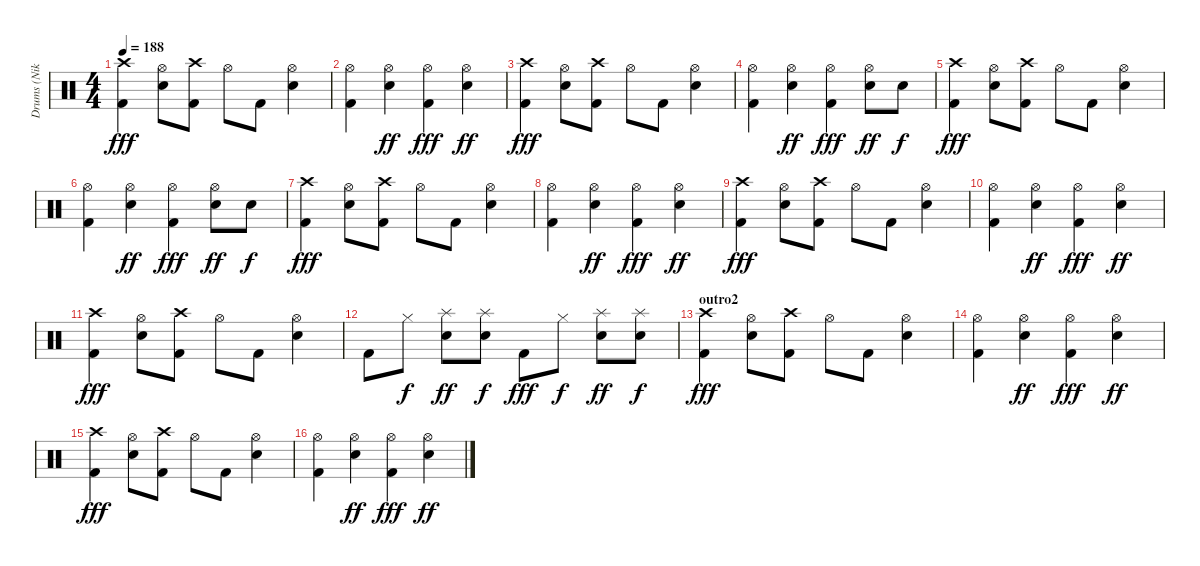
\track ("Drums (Niko)" "Drums (Nik") {instrument percussion}
\staff {score}
\articulation defaults
\ts (4 4)
\tempo 188
\clef neutral
\ks c
("Crash high (hit)" "Kick (hit) 2").4{dy fff} ("Hi-Hat (open)" "Electric Snare (hit)").8 ("Crash high (hit)" "Kick (hit) 2").8 "Hi-Hat (open)".8 "Kick (hit) 2".8 ("Hi-Hat (open)" "Electric Snare (hit)").4 |
("Hi-Hat (open)" "Kick (hit) 2").4 ("Hi-Hat (open)" "Electric Snare (hit)").4{dy ff} ("Hi-Hat (open)" "Kick (hit) 2").4{dy fff} ("Hi-Hat (open)" "Electric Snare (hit)").4{dy ff} |
("Crash high (hit)" "Kick (hit) 2").4{dy fff} ("Hi-Hat (open)" "Electric Snare (hit)").8 ("Crash high (hit)" "Kick (hit) 2").8 "Hi-Hat (open)".8 "Kick (hit) 2".8 ("Hi-Hat (open)" "Electric Snare (hit)").4 |
("Hi-Hat (open)" "Kick (hit) 2").4 ("Hi-Hat (open)" "Electric Snare (hit)").4{dy ff} ("Hi-Hat (open)" "Kick (hit) 2").4{dy fff} ("Hi-Hat (open)" "Electric Snare (hit)").8{dy ff} "Electric Snare (hit)".8{dy f} |
("Crash high (hit)" "Kick (hit) 2").4{dy fff} ("Hi-Hat (open)" "Electric Snare (hit)").8 ("Crash high (hit)" "Kick (hit) 2").8 "Hi-Hat (open)".8 "Kick (hit) 2".8 ("Hi-Hat (open)" "Electric Snare (hit)").4 |
("Hi-Hat (open)" "Kick (hit) 2").4 ("Hi-Hat (open)" "Electric Snare (hit)").4{dy ff} ("Hi-Hat (open)" "Kick (hit) 2").4{dy fff} ("Hi-Hat (open)" "Electric Snare (hit)").8{dy ff} "Electric Snare (hit)".8{dy f} |
("Crash high (hit)" "Kick (hit) 2").4{dy fff} ("Hi-Hat (open)" "Electric Snare (hit)").8 ("Crash high (hit)" "Kick (hit) 2").8 "Hi-Hat (open)".8 "Kick (hit) 2".8 ("Hi-Hat (open)" "Electric Snare (hit)").4 |
("Hi-Hat (open)" "Kick (hit) 2").4 ("Hi-Hat (open)" "Electric Snare (hit)").4{dy ff} ("Hi-Hat (open)" "Kick (hit) 2").4{dy fff} ("Hi-Hat (open)" "Electric Snare (hit)").4{dy ff} |
("Crash high (hit)" "Kick (hit) 2").4{dy fff} ("Hi-Hat (open)" "Electric Snare (hit)").8 ("Crash high (hit)" "Kick (hit) 2").8 "Hi-Hat (open)".8 "Kick (hit) 2".8 ("Hi-Hat (open)" "Electric Snare (hit)").4 |
("Hi-Hat (open)" "Kick (hit) 2").4 ("Hi-Hat (open)" "Electric Snare (hit)").4{dy ff} ("Hi-Hat (open)" "Kick (hit) 2").4{dy fff} ("Hi-Hat (open)" "Electric Snare (hit)").4{dy ff} |
("Crash high (hit)" "Kick (hit) 2").4{dy fff} ("Hi-Hat (open)" "Electric Snare (hit)").8 ("Crash high (hit)" "Kick (hit) 2").8 "Hi-Hat (open)".8 "Kick (hit) 2".8 ("Hi-Hat (open)" "Electric Snare (hit)").4 |
"Kick (hit) 2".8 "Hi-Hat (closed)".8{dy f} ("Splash (hit)" "Electric Snare (hit)").8{dy ff} ("Splash (hit)" "Electric Snare (hit)").8{dy f} "Kick (hit) 2".8{dy fff} "Hi-Hat (closed)".8{dy f} ("Splash (hit)" "Electric Snare (hit)").8{dy ff} ("Splash (hit)" "Electric Snare (hit)").8{dy f} |
\section ("" "outro2")
("Crash high (hit)" "Kick (hit) 2").4{dy fff} ("Hi-Hat (open)" "Electric Snare (hit)").8 ("Crash high (hit)" "Kick (hit) 2").8 "Hi-Hat (open)".8 "Kick (hit) 2".8 ("Hi-Hat (open)" "Electric Snare (hit)").4 |
("Hi-Hat (open)" "Kick (hit) 2").4 ("Hi-Hat (open)" "Electric Snare (hit)").4{dy ff} ("Hi-Hat (open)" "Kick (hit) 2").4{dy fff} ("Hi-Hat (open)" "Electric Snare (hit)").4{dy ff} |
("Crash high (hit)" "Kick (hit) 2").4{dy fff} ("Hi-Hat (open)" "Electric Snare (hit)").8 ("Crash high (hit)" "Kick (hit) 2").8 "Hi-Hat (open)".8 "Kick (hit) 2".8 ("Hi-Hat (open)" "Electric Snare (hit)").4 |
("Hi-Hat (open)" "Kick (hit) 2").4 ("Hi-Hat (open)" "Electric Snare (hit)").4{dy ff} ("Hi-Hat (open)" "Kick (hit) 2").4{dy fff} ("Hi-Hat (open)" "Electric Snare (hit)").4{dy ff}
